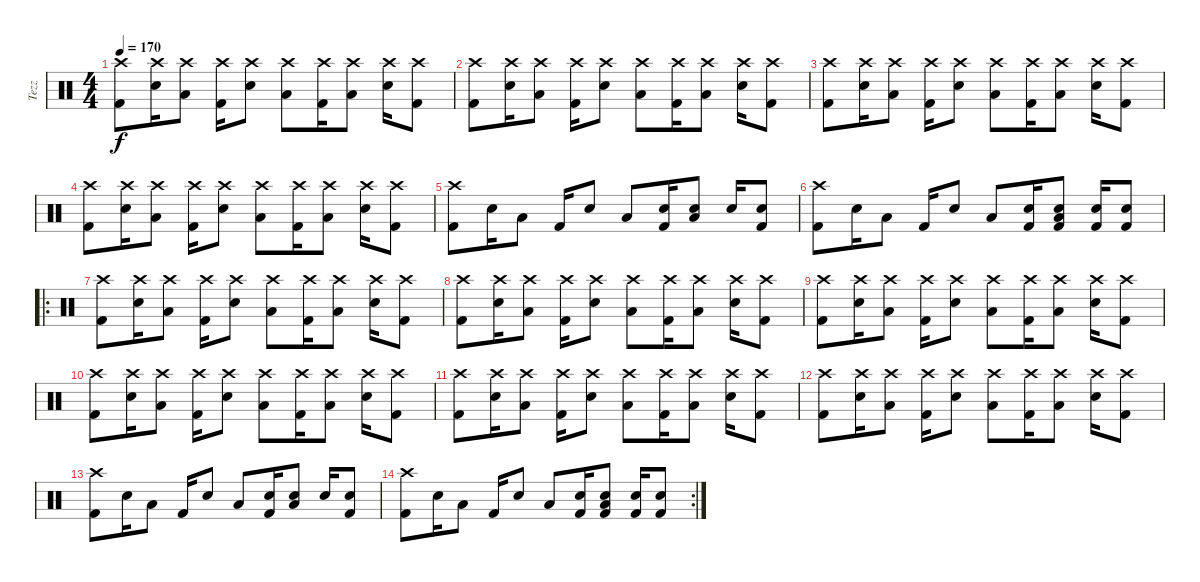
\track ("Tezz" "Tezz") {instrument percussion}
\staff {score}
\articulation defaults
\ts (4 4)
\tempo 170
\clef neutral
\ks c
("Kick (hit) 2" "Crash high (hit)").8{dy f} ("Snare (hit) 2" "Crash high (hit)").16 ("Low Tom (hit)" "Crash high (hit)").8 ("Kick (hit) 2" "Crash high (hit)").16 ("Snare (hit) 2" "Crash high (hit)").8 ("Low Tom (hit)" "Crash high (hit)").8 ("Kick (hit) 2" "Crash high (hit)").16 ("Low Tom (hit)" "Crash high (hit)").8 ("Snare (hit) 2" "Crash high (hit)").16 ("Kick (hit) 2" "Crash high (hit)").8 |
("Kick (hit) 2" "Crash high (hit)").8 ("Snare (hit) 2" "Crash high (hit)").16 ("Low Tom (hit)" "Crash high (hit)").8 ("Kick (hit) 2" "Crash high (hit)").16 ("Snare (hit) 2" "Crash high (hit)").8 ("Low Tom (hit)" "Crash high (hit)").8 ("Kick (hit) 2" "Crash high (hit)").16 ("Low Tom (hit)" "Crash high (hit)").8 ("Snare (hit) 2" "Crash high (hit)").16 ("Kick (hit) 2" "Crash high (hit)").8 |
("Kick (hit) 2" "Crash high (hit)").8 ("Snare (hit) 2" "Crash high (hit)").16 ("Low Tom (hit)" "Crash high (hit)").8 ("Kick (hit) 2" "Crash high (hit)").16 ("Snare (hit) 2" "Crash high (hit)").8 ("Low Tom (hit)" "Crash high (hit)").8 ("Kick (hit) 2" "Crash high (hit)").16 ("Low Tom (hit)" "Crash high (hit)").8 ("Snare (hit) 2" "Crash high (hit)").16 ("Kick (hit) 2" "Crash high (hit)").8 |
("Kick (hit) 2" "Crash high (hit)").8 ("Snare (hit) 2" "Crash high (hit)").16 ("Low Tom (hit)" "Crash high (hit)").8 ("Kick (hit) 2" "Crash high (hit)").16 ("Snare (hit) 2" "Crash high (hit)").8 ("Low Tom (hit)" "Crash high (hit)").8 ("Kick (hit) 2" "Crash high (hit)").16 ("Low Tom (hit)" "Crash high (hit)").8 ("Snare (hit) 2" "Crash high (hit)").16 ("Kick (hit) 2" "Crash high (hit)").8 |
("Kick (hit) 2" "Crash high (hit)").8 "Snare (hit) 2".16 "Low Tom (hit)".8 "Kick (hit) 2".16 "Snare (hit) 2".8 "Low Tom (hit)".8 ("Kick (hit) 2" "Snare (hit) 2").16 ("Low Tom (hit)" "Electric Snare (hit)").8 "Snare (hit) 2".16 ("Kick (hit) 2" "Electric Snare (hit)").8 |
("Kick (hit) 2" "Crash high (hit)").8 "Snare (hit) 2".16 "Low Tom (hit)".8 "Kick (hit) 2".16 "Snare (hit) 2".8 "Low Tom (hit)".8 ("Snare (hit) 2" "Kick (hit) 2").16 ("Low Tom (hit)" "Snare (hit) 2" "Kick (hit) 2").8 ("Snare (hit) 2" "Kick (hit) 2").16 ("Snare (hit) 2" "Kick (hit) 2").8 |
\ro
("Kick (hit) 2" "Crash high (hit)").8 ("Snare (hit) 2" "Crash high (hit)").16 ("Low Tom (hit)" "Crash high (hit)").8 ("Kick (hit) 2" "Crash high (hit)").16 ("Snare (hit) 2" "Crash high (hit)").8 ("Low Tom (hit)" "Crash high (hit)").8 ("Kick (hit) 2" "Crash high (hit)").16 ("Low Tom (hit)" "Crash high (hit)").8 ("Snare (hit) 2" "Crash high (hit)").16 ("Kick (hit) 2" "Crash high (hit)").8 |
("Kick (hit) 2" "Crash high (hit)").8 ("Snare (hit) 2" "Crash high (hit)").16 ("Low Tom (hit)" "Crash high (hit)").8 ("Kick (hit) 2" "Crash high (hit)").16 ("Snare (hit) 2" "Crash high (hit)").8 ("Low Tom (hit)" "Crash high (hit)").8 ("Kick (hit) 2" "Crash high (hit)").16 ("Low Tom (hit)" "Crash high (hit)").8 ("Snare (hit) 2" "Crash high (hit)").16 ("Kick (hit) 2" "Crash high (hit)").8 |
("Kick (hit) 2" "Crash high (hit)").8 ("Snare (hit) 2" "Crash high (hit)").16 ("Low Tom (hit)" "Crash high (hit)").8 ("Kick (hit) 2" "Crash high (hit)").16 ("Snare (hit) 2" "Crash high (hit)").8 ("Low Tom (hit)" "Crash high (hit)").8 ("Kick (hit) 2" "Crash high (hit)").16 ("Low Tom (hit)" "Crash high (hit)").8 ("Snare (hit) 2" "Crash high (hit)").16 ("Kick (hit) 2" "Crash high (hit)").8 |
("Kick (hit) 2" "Crash high (hit)").8 ("Snare (hit) 2" "Crash high (hit)").16 ("Low Tom (hit)" "Crash high (hit)").8 ("Kick (hit) 2" "Crash high (hit)").16 ("Snare (hit) 2" "Crash high (hit)").8 ("Low Tom (hit)" "Crash high (hit)").8 ("Kick (hit) 2" "Crash high (hit)").16 ("Low Tom (hit)" "Crash high (hit)").8 ("Snare (hit) 2" "Crash high (hit)").16 ("Kick (hit) 2" "Crash high (hit)").8 |
("Kick (hit) 2" "Crash high (hit)").8 ("Snare (hit) 2" "Crash high (hit)").16 ("Low Tom (hit)" "Crash high (hit)").8 ("Kick (hit) 2" "Crash high (hit)").16 ("Snare (hit) 2" "Crash high (hit)").8 ("Low Tom (hit)" "Crash high (hit)").8 ("Kick (hit) 2" "Crash high (hit)").16 ("Low Tom (hit)" "Crash high (hit)").8 ("Snare (hit) 2" "Crash high (hit)").16 ("Kick (hit) 2" "Crash high (hit)").8 |
("Kick (hit) 2" "Crash high (hit)").8 ("Snare (hit) 2" "Crash high (hit)").16 ("Low Tom (hit)" "Crash high (hit)").8 ("Kick (hit) 2" "Crash high (hit)").16 ("Snare (hit) 2" "Crash high (hit)").8 ("Low Tom (hit)" "Crash high (hit)").8 ("Kick (hit) 2" "Crash high (hit)").16 ("Low Tom (hit)" "Crash high (hit)").8 ("Snare (hit) 2" "Crash high (hit)").16 ("Kick (hit) 2" "Crash high (hit)").8 |
("Kick (hit) 2" "Crash high (hit)").8 "Snare (hit) 2".16 "Low Tom (hit)".8 "Kick (hit) 2".16 "Snare (hit) 2".8 "Low Tom (hit)".8 ("Kick (hit) 2" "Snare (hit) 2").16 ("Low Tom (hit)" "Electric Snare (hit)").8 "Snare (hit) 2".16 ("Kick (hit) 2" "Electric Snare (hit)").8 |
\rc 2
("Kick (hit) 2" "Crash high (hit)").8 "Snare (hit) 2".16 "Low Tom (hit)".8 "Kick (hit) 2".16 "Snare (hit) 2".8 "Low Tom (hit)".8 ("Snare (hit) 2" "Kick (hit) 2").16 ("Low Tom (hit)" "Snare (hit) 2" "Kick (hit) 2").8 ("Snare (hit) 2" "Kick (hit) 2").16 ("Snare (hit) 2" "Kick (hit) 2").8
